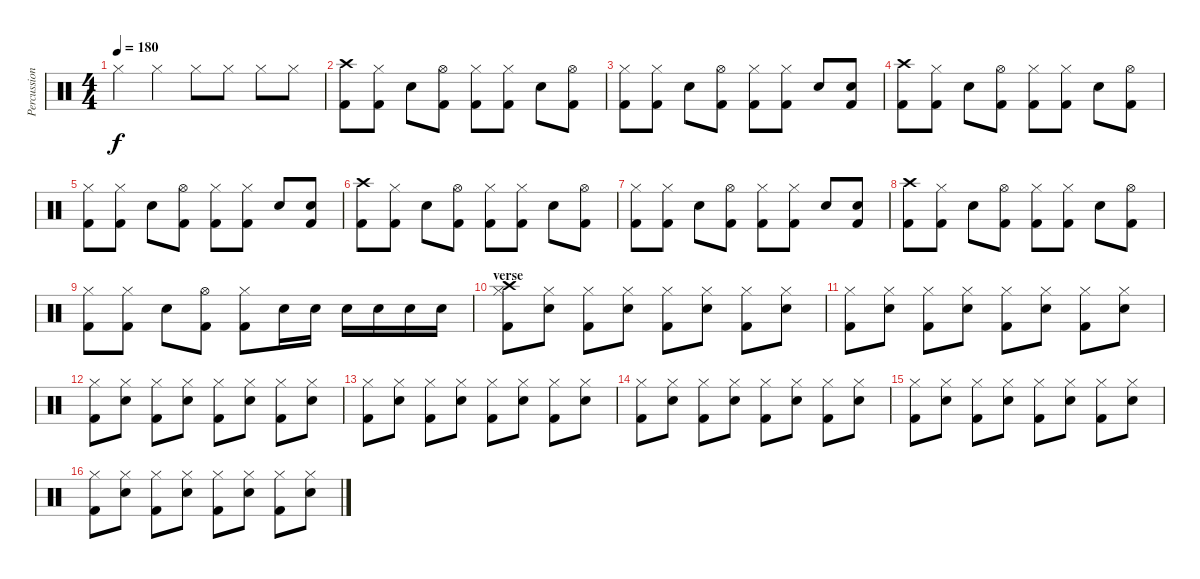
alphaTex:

\track ("Percussion" "Percussion") {instrument percussion}
\staff {score}
\articulation defaults
\ts (4 4)
\tempo 180
\clef neutral
\ks c "Hi-Hat (closed)".4{dy f} "Hi-Hat (closed)".4 "Hi-Hat (closed)".8 "Hi-Hat (closed)".8 "Hi-Hat (closed)".8 "Hi-Hat (closed)".8
|
("Crash high (hit)" "Kick (hit) 2").8 ("Hi-Hat (closed)" "Kick (hit) 2").8 "Electric Snare (hit)".8 ("Hi-Hat (open)" "Kick (hit) 2").8 ("Hi-Hat (closed)" "Kick (hit) 2").8 ("Hi-Hat (closed)" "Kick (hit) 2").8 "Electric Snare (hit)".8 ("Hi-Hat (open)" "Kick (hit) 2").8 |
("Hi-Hat (closed)" "Kick (hit) 2").8 ("Hi-Hat (closed)" "Kick (hit) 2").8 "Electric Snare (hit)".8 ("Hi-Hat (open)" "Kick (hit) 2").8 ("Hi-Hat (closed)" "Kick (hit) 2").8 ("Hi-Hat (closed)" "Kick (hit) 2").8 "Electric Snare (hit)".8 ("Electric Snare (hit)" "Kick (hit) 2").8 |
("Crash high (hit)" "Kick (hit) 2").8 ("Hi-Hat (closed)" "Kick (hit) 2").8 "Electric Snare (hit)".8 ("Hi-Hat (open)" "Kick (hit) 2").8 ("Hi-Hat (closed)" "Kick (hit) 2").8 ("Hi-Hat (closed)" "Kick (hit) 2").8 "Electric Snare (hit)".8 ("Hi-Hat (open)" "Kick (hit) 2").8 |
("Hi-Hat (closed)" "Kick (hit) 2").8 ("Hi-Hat (closed)" "Kick (hit) 2").8 "Electric Snare (hit)".8 ("Hi-Hat (open)" "Kick (hit) 2").8 ("Hi-Hat (closed)" "Kick (hit) 2").8 ("Hi-Hat (closed)" "Kick (hit) 2").8 "Electric Snare (hit)".8 ("Electric Snare (hit)" "Kick (hit) 2").8 |
("Crash high (hit)" "Kick (hit) 2").8 ("Hi-Hat (closed)" "Kick (hit) 2").8 "Electric Snare (hit)".8 ("Hi-Hat (open)" "Kick (hit) 2").8 ("Hi-Hat (closed)" "Kick (hit) 2").8 ("Hi-Hat (closed)" "Kick (hit) 2").8 "Electric Snare (hit)".8 ("Hi-Hat (open)" "Kick (hit) 2").8 |
("Hi-Hat (closed)" "Kick (hit) 2").8 ("Hi-Hat (closed)" "Kick (hit) 2").8 "Electric Snare (hit)".8 ("Hi-Hat (open)" "Kick (hit) 2").8 ("Hi-Hat (closed)" "Kick (hit) 2").8 ("Hi-Hat (closed)" "Kick (hit) 2").8 "Electric Snare (hit)".8 ("Electric Snare (hit)" "Kick (hit) 2").8 |
("Crash high (hit)" "Kick (hit) 2").8 ("Hi-Hat (closed)" "Kick (hit) 2").8 "Electric Snare (hit)".8 ("Hi-Hat (open)" "Kick (hit) 2").8 ("Hi-Hat (closed)" "Kick (hit) 2").8 ("Hi-Hat (closed)" "Kick (hit) 2").8 "Electric Snare (hit)".8 ("Hi-Hat (open)" "Kick (hit) 2").8 |
("Hi-Hat (closed)" "Kick (hit) 2").8 ("Hi-Hat (closed)" "Kick (hit) 2").8 "Electric Snare (hit)".8 ("Hi-Hat (open)" "Kick (hit) 2").8 ("Hi-Hat (closed)" "Kick (hit) 2").8 "Electric Snare (hit)".16 "Electric Snare (hit)".16 "Electric Snare (hit)".16 "Electric Snare (hit)".16 "Electric Snare (hit)".16 "Electric Snare (hit)".16 |
\section ("" "verse")
("Crash high (hit)" "Hi-Hat (closed)" "Kick (hit) 2").8 ("Hi-Hat (closed)" "Electric Snare (hit)").8 ("Hi-Hat (closed)" "Kick (hit) 2").8 ("Hi-Hat (closed)" "Electric Snare (hit)").8 ("Hi-Hat (closed)" "Kick (hit) 2").8 ("Hi-Hat (closed)" "Electric Snare (hit)").8 ("Hi-Hat (closed)" "Kick (hit) 2").8 ("Hi-Hat (closed)" "Electric Snare (hit)").8 |
("Hi-Hat (closed)" "Kick (hit) 2").8 ("Hi-Hat (closed)" "Electric Snare (hit)").8 ("Hi-Hat (closed)" "Kick (hit) 2").8 ("Hi-Hat (closed)" "Electric Snare (hit)").8 ("Hi-Hat (closed)" "Kick (hit) 2").8 ("Hi-Hat (closed)" "Electric Snare (hit)").8 ("Hi-Hat (closed)" "Kick (hit) 2").8 ("Hi-Hat (closed)" "Electric Snare (hit)").8 |
("Hi-Hat (closed)" "Kick (hit) 2").8 ("Hi-Hat (closed)" "Electric Snare (hit)").8 ("Hi-Hat (closed)" "Kick (hit) 2").8 ("Hi-Hat (closed)" "Electric Snare (hit)").8 ("Hi-Hat (closed)" "Kick (hit) 2").8 ("Hi-Hat (closed)" "Electric Snare (hit)").8 ("Hi-Hat (closed)" "Kick (hit) 2").8 ("Hi-Hat (closed)" "Electric Snare (hit)").8 |
("Hi-Hat (closed)" "Kick (hit) 2").8 ("Hi-Hat (closed)" "Electric Snare (hit)").8 ("Hi-Hat (closed)" "Kick (hit) 2").8 ("Hi-Hat (closed)" "Electric Snare (hit)").8 ("Hi-Hat (closed)" "Kick (hit) 2").8 ("Hi-Hat (closed)" "Electric Snare (hit)").8 ("Hi-Hat (closed)" "Kick (hit) 2").8 ("Hi-Hat (closed)" "Electric Snare (hit)").8 |
("Hi-Hat (closed)" "Kick (hit) 2").8 ("Hi-Hat (closed)" "Electric Snare (hit)").8 ("Hi-Hat (closed)" "Kick (hit) 2").8 ("Hi-Hat (closed)" "Electric Snare (hit)").8 ("Hi-Hat (closed)" "Kick (hit) 2").8 ("Hi-Hat (closed)" "Electric Snare (hit)").8 ("Hi-Hat (closed)" "Kick (hit) 2").8 ("Hi-Hat (closed)" "Electric Snare (hit)").8 |
("Hi-Hat (closed)" "Kick (hit) 2").8 ("Hi-Hat (closed)" "Electric Snare (hit)").8 ("Hi-Hat (closed)" "Kick (hit) 2").8 ("Hi-Hat (closed)" "Electric Snare (hit)").8 ("Hi-Hat (closed)" "Kick (hit) 2").8 ("Hi-Hat (closed)" "Electric Snare (hit)").8 ("Hi-Hat (closed)" "Kick (hit) 2").8 ("Hi-Hat (closed)" "Electric Snare (hit)").8 |
("Hi-Hat (closed)" "Kick (hit) 2").8 ("Hi-Hat (closed)" "Electric Snare (hit)").8 ("Hi-Hat (closed)" "Kick (hit) 2").8 ("Hi-Hat (closed)" "Electric Snare (hit)").8 ("Hi-Hat (closed)" "Kick (hit) 2").8 ("Hi-Hat (closed)" "Electric Snare (hit)").8 ("Hi-Hat (closed)" "Kick (hit) 2").8 ("Hi-Hat (closed)" "Electric Snare (hit)").8
